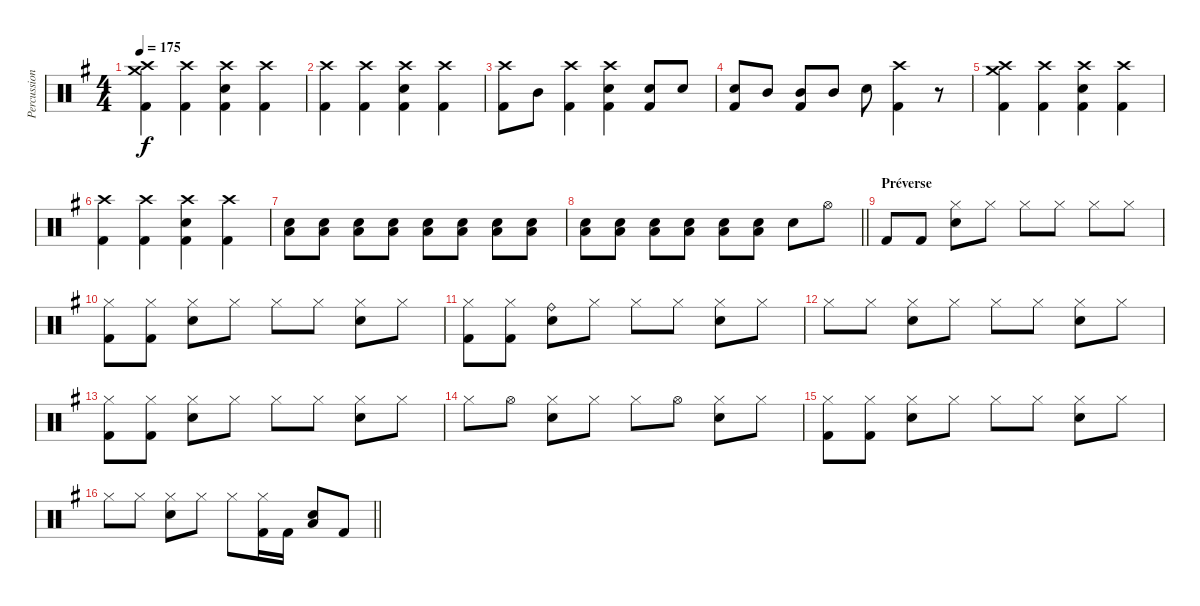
\track ("Percussion" "Percussion") {instrument percussion}
\staff {score}
\articulation defaults
\ts (4 4)
\tempo 175
\clef neutral
\ks g
("Crash medium (hit)" "Crash high (hit)" "Kick (hit) 2").4{dy f} ("Crash high (hit)" "Kick (hit) 2").4 ("Crash high (hit)" "Snare (hit) 2" "Kick (hit) 2").4 ("Crash high (hit)" "Kick (hit) 2").4 |
("Crash high (hit)" "Kick (hit) 2").4 ("Crash high (hit)" "Kick (hit) 2").4 ("Crash high (hit)" "Snare (hit) 2" "Kick (hit) 2").4 ("Crash high (hit)" "Kick (hit) 2").4 |
("Crash high (hit)" "Kick (hit) 2").8 "Mid Tom (hit)".8 ("Crash high (hit)" "Kick (hit) 2").4 ("Crash high (hit)" "Snare (hit) 2" "Kick (hit) 2").4 ("Snare (hit) 2" "Kick (hit) 2").8 "Snare (hit) 2".8 |
("Snare (hit) 2" "Kick (hit) 2").8 "Mid Tom (hit)".8 ("Mid Tom (hit)" "Kick (hit) 2").8 "Mid Tom (hit)".8 "Snare (hit) 2".8 ("Crash high (hit)" "Kick (hit) 2").4 r.8 |
("Crash medium (hit)" "Crash high (hit)" "Kick (hit) 2").4 ("Crash high (hit)" "Kick (hit) 2").4 ("Crash high (hit)" "Snare (hit) 2" "Kick (hit) 2").4 ("Crash high (hit)" "Kick (hit) 2").4 |
("Crash high (hit)" "Kick (hit) 2").4 ("Crash high (hit)" "Kick (hit) 2").4 ("Crash high (hit)" "Snare (hit) 2" "Kick (hit) 2").4 ("Crash high (hit)" "Kick (hit) 2").4 |
("Snare (hit) 2" "Low Floor Tom (hit)").8 ("Snare (hit) 2" "Low Floor Tom (hit)").8 ("Snare (hit) 2" "Low Floor Tom (hit)").8 ("Snare (hit) 2" "Low Floor Tom (hit)").8 ("Snare (hit) 2" "Low Floor Tom (hit)").8 ("Snare (hit) 2" "Low Floor Tom (hit)").8 ("Snare (hit) 2" "Low Floor Tom (hit)").8 ("Snare (hit) 2" "Low Floor Tom (hit)").8 |
\barLineRight lightlight
("Snare (hit) 2" "Low Floor Tom (hit)").8 ("Snare (hit) 2" "Low Floor Tom (hit)").8 ("Snare (hit) 2" "Low Floor Tom (hit)").8 ("Snare (hit) 2" "Low Floor Tom (hit)").8 ("Snare (hit) 2" "Low Floor Tom (hit)").8 ("Snare (hit) 2" "Low Floor Tom (hit)").8 "Snare (hit) 2".8 "Hi-Hat (open)".8 |
\section ("" "Préverse")
"Kick (hit) 2".8 "Kick (hit) 2".8 ("Hi-Hat (closed)" "Snare (hit) 2").8 "Hi-Hat (closed)".8 "Hi-Hat (closed)".8 "Hi-Hat (closed)".8 "Hi-Hat (closed)".8 "Hi-Hat (closed)".8 |
("Hi-Hat (closed)" "Kick (hit) 2").8 ("Hi-Hat (closed)" "Kick (hit) 2").8 ("Hi-Hat (closed)" "Snare (hit) 2").8 "Hi-Hat (closed)".8 "Hi-Hat (closed)".8 "Hi-Hat (closed)".8 ("Hi-Hat (closed)" "Snare (hit) 2").8 "Hi-Hat (closed)".8 |
("Hi-Hat (closed)" "Kick (hit) 2").8 ("Hi-Hat (closed)" "Kick (hit) 2").8 ("Ride (bell)" "Snare (hit) 2").8 "Hi-Hat (closed)".8 "Hi-Hat (closed)".8 "Hi-Hat (closed)".8 ("Hi-Hat (closed)" "Snare (hit) 2").8 "Hi-Hat (closed)".8 |
"Hi-Hat (closed)".8 "Hi-Hat (closed)".8 ("Hi-Hat (closed)" "Snare (hit) 2").8 "Hi-Hat (closed)".8 "Hi-Hat (closed)".8 "Hi-Hat (closed)".8 ("Hi-Hat (closed)" "Snare (hit) 2").8 "Hi-Hat (closed)".8 |
("Hi-Hat (closed)" "Kick (hit) 2").8 ("Hi-Hat (closed)" "Kick (hit) 2").8 ("Hi-Hat (closed)" "Snare (hit) 2").8 "Hi-Hat (closed)".8 "Hi-Hat (closed)".8 "Hi-Hat (closed)".8 ("Hi-Hat (closed)" "Snare (hit) 2").8 "Hi-Hat (closed)".8 |
"Hi-Hat (closed)".8 "Hi-Hat (open)".8 ("Hi-Hat (closed)" "Snare (hit) 2").8 "Hi-Hat (closed)".8 "Hi-Hat (closed)".8 "Hi-Hat (open)".8 ("Hi-Hat (closed)" "Snare (hit) 2").8 "Hi-Hat (closed)".8 |
("Hi-Hat (closed)" "Kick (hit) 2").8 ("Hi-Hat (closed)" "Kick (hit) 2").8 ("Hi-Hat (closed)" "Snare (hit) 2").8 "Hi-Hat (closed)".8 "Hi-Hat (closed)".8 "Hi-Hat (closed)".8 ("Hi-Hat (closed)" "Snare (hit) 2").8 "Hi-Hat (closed)".8 |
\barLineRight lightlight "Hi-Hat (closed)".8 "Hi-Hat (closed)".8
("Hi-Hat (closed)" "Snare (hit) 2").8 "Hi-Hat (closed)".8 "Hi-Hat (closed)".8 ("Hi-Hat (closed)" "Kick (hit) 2").16 "Kick (hit) 2".16 ("Snare (hit) 2" "Low Floor Tom (hit)").8 "Kick (hit) 2".8
